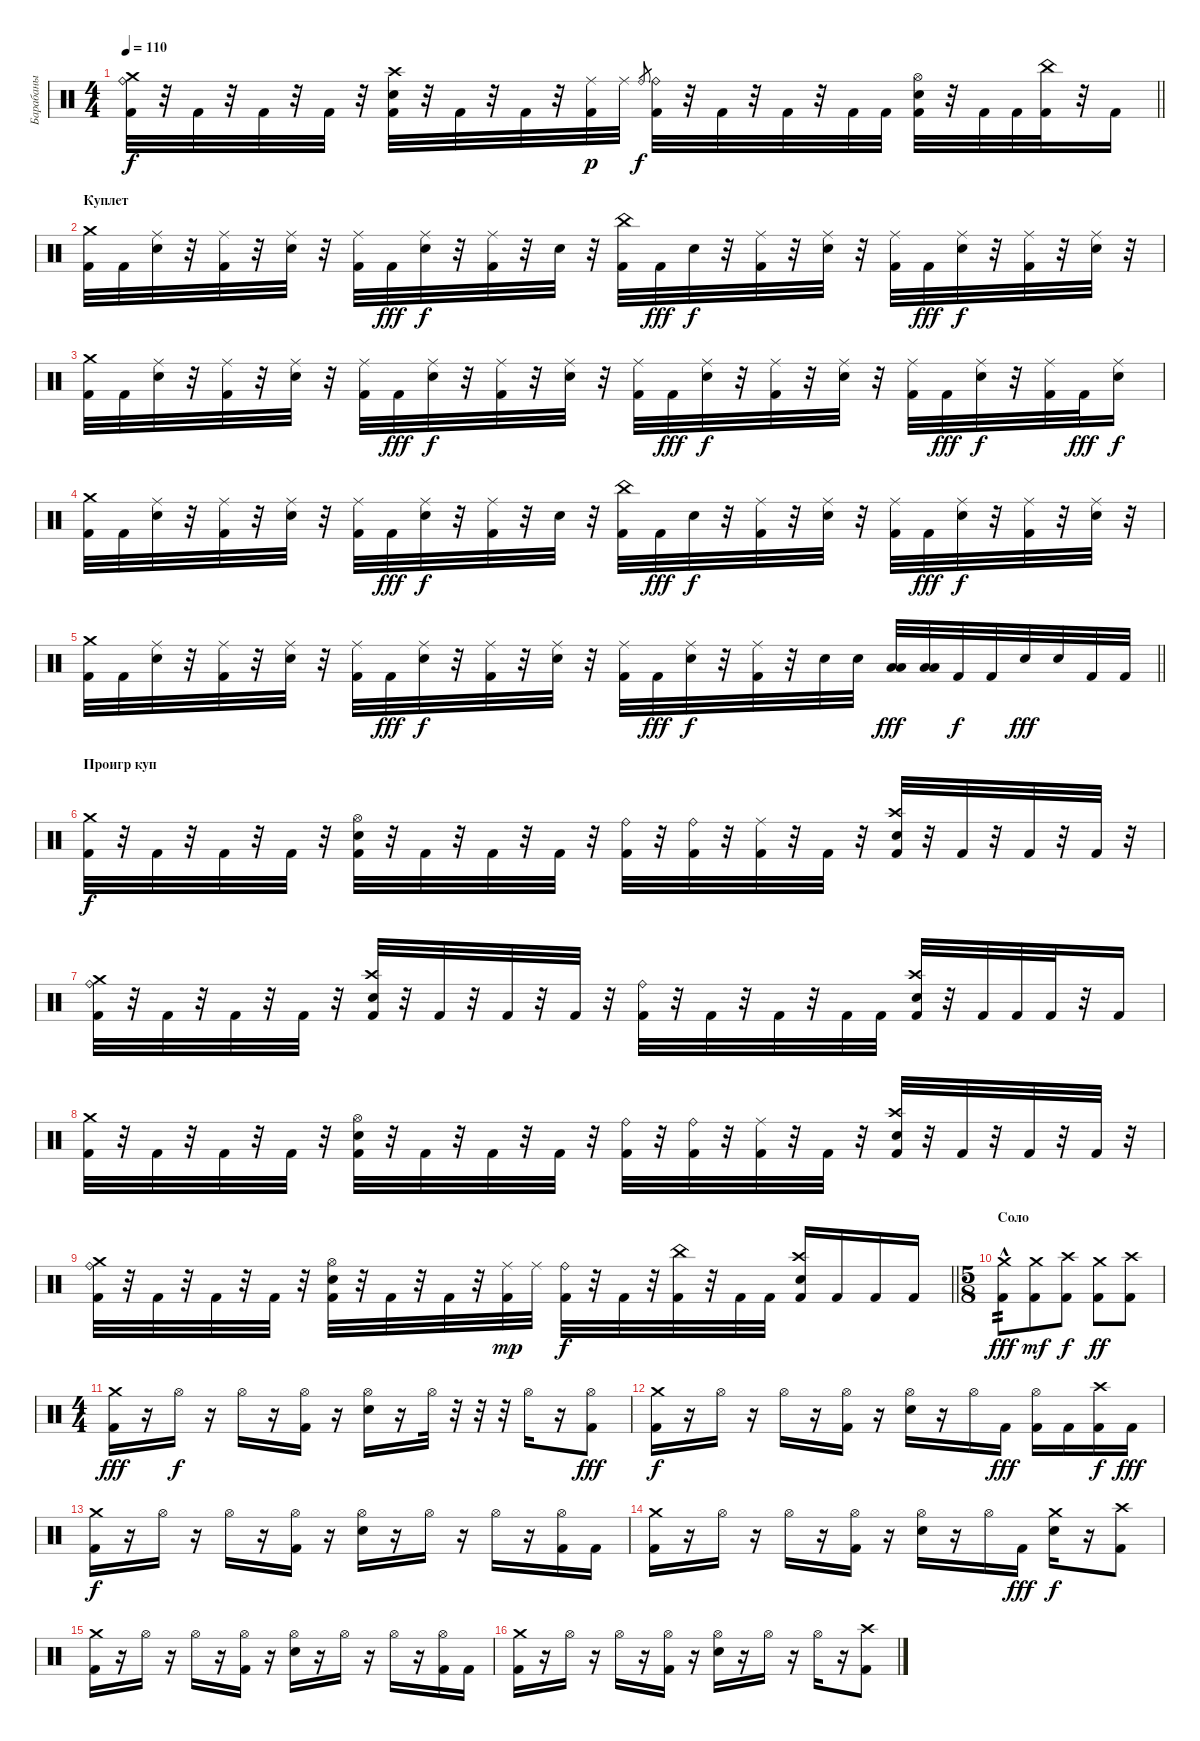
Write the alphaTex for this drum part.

\track ("Барабаны" "Барабаны") {instrument percussion}
\staff {score}
\articulation defaults
\ts (4 4)
\tempo 110
\clef neutral
\barLineRight lightlight
\ks c
("Crash medium (hit)" "Ride (bell)" "Kick (hit) 2").32{dy f} r.32 "Kick (hit) 2".32 r.32 "Kick (hit) 2".32 r.32 "Kick (hit) 2".32 r.32 ("Crash high (hit)" "Snare (hit) 2" "Kick (hit) 2").32 r.32 "Kick (hit) 2".32 r.32 "Kick (hit) 2".32 r.32 ("Ride (middle)" "Kick (hit) 2").32{dy p} "Ride (middle)".32 "Ride (bell)".8{gr dy f} ("Ride (bell)" "Kick (hit) 2").32 r.32 "Kick (hit) 2".32 r.32 "Kick (hit) 2".32 r.32 "Kick (hit) 2".32 "Kick (hit) 2".32 ("Hi-Hat (open)" "Snare (hit) 2" "Kick (hit) 2").32 r.32 "Kick (hit) 2".32 "Kick (hit) 2".32 ("China (hit)" "Kick (hit) 2").32 r.32 "Kick (hit) 2".16 |
\section ("" "Куплет")
("Crash medium (hit)" "Kick (hit) 2").32 "Kick (hit) 2".32 ("Ride (middle)" "Electric Snare (hit)").32 r.32 ("Ride (middle)" "Kick (hit) 2").32 r.32 ("Ride (middle)" "Electric Snare (hit)").32 r.32 ("Ride (middle)" "Kick (hit) 2").32 "Kick (hit) 2".32{dy fff} ("Ride (middle)" "Electric Snare (hit)").32{dy f} r.32 ("Ride (middle)" "Kick (hit) 2").32 r.32 "Electric Snare (hit)".32 r.32 ("China (hit)" "Kick (hit) 2").32 "Kick (hit) 2".32{dy fff} "Electric Snare (hit)".32{dy f} r.32 ("Ride (middle)" "Kick (hit) 2").32 r.32 ("Ride (middle)" "Electric Snare (hit)").32 r.32 ("Ride (middle)" "Kick (hit) 2").32 "Kick (hit) 2".32{dy fff} ("Ride (middle)" "Electric Snare (hit)").32{dy f} r.32 ("Ride (middle)" "Kick (hit) 2").32 r.32 ("Ride (middle)" "Electric Snare (hit)").32 r.32 |
("Crash medium (hit)" "Kick (hit) 2").32 "Kick (hit) 2".32 ("Ride (middle)" "Electric Snare (hit)").32 r.32 ("Ride (middle)" "Kick (hit) 2").32 r.32 ("Ride (middle)" "Electric Snare (hit)").32 r.32 ("Ride (middle)" "Kick (hit) 2").32 "Kick (hit) 2".32{dy fff} ("Ride (middle)" "Electric Snare (hit)").32{dy f} r.32 ("Ride (middle)" "Kick (hit) 2").32 r.32 ("Ride (middle)" "Electric Snare (hit)").32 r.32 ("Ride (middle)" "Kick (hit) 2").32 "Kick (hit) 2".32{dy fff} ("Ride (middle)" "Electric Snare (hit)").32{dy f} r.32 ("Ride (middle)" "Kick (hit) 2").32 r.32 ("Ride (middle)" "Electric Snare (hit)").32 r.32 ("Ride (middle)" "Kick (hit) 2").32 "Kick (hit) 2".32{dy fff} ("Ride (middle)" "Electric Snare (hit)").32{dy f} r.32 ("Ride (middle)" "Kick (hit) 2").32 "Kick (hit) 2".32{dy fff} ("Ride (middle)" "Electric Snare (hit)").16{dy f} |
("Crash medium (hit)" "Kick (hit) 2").32 "Kick (hit) 2".32 ("Ride (middle)" "Electric Snare (hit)").32 r.32 ("Ride (middle)" "Kick (hit) 2").32 r.32 ("Ride (middle)" "Electric Snare (hit)").32 r.32 ("Ride (middle)" "Kick (hit) 2").32 "Kick (hit) 2".32{dy fff} ("Ride (middle)" "Electric Snare (hit)").32{dy f} r.32 ("Ride (middle)" "Kick (hit) 2").32 r.32 "Electric Snare (hit)".32 r.32 ("China (hit)" "Kick (hit) 2").32 "Kick (hit) 2".32{dy fff} "Electric Snare (hit)".32{dy f} r.32 ("Ride (middle)" "Kick (hit) 2").32 r.32 ("Ride (middle)" "Electric Snare (hit)").32 r.32 ("Ride (middle)" "Kick (hit) 2").32 "Kick (hit) 2".32{dy fff} ("Ride (middle)" "Electric Snare (hit)").32{dy f} r.32 ("Ride (middle)" "Kick (hit) 2").32 r.32 ("Ride (middle)" "Electric Snare (hit)").32 r.32 |
\barLineRight lightlight
("Crash medium (hit)" "Kick (hit) 2").32 "Kick (hit) 2".32 ("Ride (middle)" "Electric Snare (hit)").32 r.32 ("Ride (middle)" "Kick (hit) 2").32 r.32 ("Ride (middle)" "Electric Snare (hit)").32 r.32 ("Ride (middle)" "Kick (hit) 2").32 "Kick (hit) 2".32{dy fff} ("Ride (middle)" "Electric Snare (hit)").32{dy f} r.32 ("Ride (middle)" "Kick (hit) 2").32 r.32 ("Ride (middle)" "Electric Snare (hit)").32 r.32 ("Ride (middle)" "Kick (hit) 2").32 "Kick (hit) 2".32{dy fff} ("Ride (middle)" "Electric Snare (hit)").32{dy f} r.32 ("Ride (middle)" "Kick (hit) 2").32 r.32 "Electric Snare (hit)".32 "Electric Snare (hit)".32 ("Low Tom (hit)" "Low Tom (hit)").32{dy fff} ("Low Tom (hit)" "Low Tom (hit)").32 "Kick (hit) 2".32{dy f} "Kick (hit) 2".32 "Electric Snare (hit)".32{dy fff} "Electric Snare (hit)".32 "Kick (hit) 2".32 "Kick (hit) 2".32 |
\section ("" "Проигр куп")
("Crash medium (hit)" "Kick (hit) 2").32{dy f} r.32 "Kick (hit) 2".32 r.32 "Kick (hit) 2".32 r.32 "Kick (hit) 2".32 r.32 ("Hi-Hat (open)" "Snare (hit) 2" "Kick (hit) 2").32 r.32 "Kick (hit) 2".32 r.32 "Kick (hit) 2".32 r.32 "Kick (hit) 2".32 r.32 ("Ride (bell)" "Kick (hit) 2").32 r.32 ("Ride (bell)" "Kick (hit) 2").32 r.32 ("Ride (middle)" "Kick (hit) 2").32 r.32 "Kick (hit) 2".32 r.32 ("Crash high (hit)" "Snare (hit) 2" "Kick (hit) 2").32 r.32 "Kick (hit) 2".32 r.32 "Kick (hit) 2".32 r.32 "Kick (hit) 2".32 r.32 |
("Crash medium (hit)" "Ride (bell)" "Kick (hit) 2").32 r.32 "Kick (hit) 2".32 r.32 "Kick (hit) 2".32 r.32 "Kick (hit) 2".32 r.32 ("Crash high (hit)" "Snare (hit) 2" "Kick (hit) 2").32 r.32 "Kick (hit) 2".32 r.32 "Kick (hit) 2".32 r.32 "Kick (hit) 2".32 r.32 ("Ride (bell)" "Kick (hit) 2").32 r.32 "Kick (hit) 2".32 r.32 "Kick (hit) 2".32 r.32 "Kick (hit) 2".32 "Kick (hit) 2".32 ("Crash high (hit)" "Snare (hit) 2" "Kick (hit) 2").32 r.32 "Kick (hit) 2".32 "Kick (hit) 2".32 "Kick (hit) 2".32 r.32 "Kick (hit) 2".16 |
("Crash medium (hit)" "Kick (hit) 2").32 r.32 "Kick (hit) 2".32 r.32 "Kick (hit) 2".32 r.32 "Kick (hit) 2".32 r.32 ("Hi-Hat (open)" "Snare (hit) 2" "Kick (hit) 2").32 r.32 "Kick (hit) 2".32 r.32 "Kick (hit) 2".32 r.32 "Kick (hit) 2".32 r.32 ("Ride (bell)" "Kick (hit) 2").32 r.32 ("Ride (bell)" "Kick (hit) 2").32 r.32 ("Ride (middle)" "Kick (hit) 2").32 r.32 "Kick (hit) 2".32 r.32 ("Crash high (hit)" "Snare (hit) 2" "Kick (hit) 2").32 r.32 "Kick (hit) 2".32 r.32 "Kick (hit) 2".32 r.32 "Kick (hit) 2".32 r.32 |
\barLineRight lightlight
("Crash medium (hit)" "Ride (bell)" "Kick (hit) 2").32 r.32 "Kick (hit) 2".32 r.32 "Kick (hit) 2".32 r.32 "Kick (hit) 2".32 r.32 ("Hi-Hat (open)" "Snare (hit) 2" "Kick (hit) 2").32 r.32 "Kick (hit) 2".32 r.32 "Kick (hit) 2".32 r.32 ("Ride (middle)" "Kick (hit) 2").32{dy mp} "Ride (middle)".32 ("Ride (bell)" "Kick (hit) 2").32{dy f} r.32 "Kick (hit) 2".32 r.32 ("China (hit)" "Kick (hit) 2").32 r.32 "Kick (hit) 2".32 "Kick (hit) 2".32 ("Crash high (hit)" "Snare (hit) 2" "Kick (hit) 2").16 "Kick (hit) 2".16 "Kick (hit) 2".16 "Kick (hit) 2".16 |
\ts (5 8)
\section ("" "Соло")
("Crash medium (hit)" "Kick (hit) 2"{hac}).8{tp 2 dy fff} ("Crash medium (hit)" "Kick (hit) 2").8{dy mf} ("Crash high (hit)" "Kick (hit) 2").8{dy f} ("Crash medium (hit)" "Kick (hit) 2").8{dy ff} ("Crash high (hit)" "Kick (hit) 2").8 |
\ts (4 4)
("Crash medium (hit)" "Kick (hit) 2").16{dy fff} r.16 "Hi-Hat (open)".16{dy f} r.16 "Hi-Hat (open)".16 r.16 ("Hi-Hat (open)" "Kick (hit) 2").16 r.16 ("Hi-Hat (open)" "Electric Snare (hit)").16 r.16 "Hi-Hat (open)".32 r.32 r.32 r.32 "Hi-Hat (open)".16 r.16 ("Hi-Hat (open)" "Kick (hit) 2").8{dy fff} |
("Crash medium (hit)" "Kick (hit) 2").16{dy f} r.16 "Hi-Hat (open)".16 r.16 "Hi-Hat (open)".16 r.16 ("Hi-Hat (open)" "Kick (hit) 2").16 r.16 ("Hi-Hat (open)" "Electric Snare (hit)").16 r.16 "Hi-Hat (open)".16 "Kick (hit) 2".16{dy fff} ("Hi-Hat (open)" "Kick (hit) 2").16 "Kick (hit) 2".16 ("Crash high (hit)" "Kick (hit) 2").16{dy f} "Kick (hit) 2".16{dy fff} |
("Crash medium (hit)" "Kick (hit) 2").16{dy f} r.16 "Hi-Hat (open)".16 r.16 "Hi-Hat (open)".16 r.16 ("Hi-Hat (open)" "Kick (hit) 2").16 r.16 ("Hi-Hat (open)" "Electric Snare (hit)").16 r.16 "Hi-Hat (open)".16 r.16 "Hi-Hat (open)".16 r.16 ("Hi-Hat (open)" "Kick (hit) 2").16 "Kick (hit) 2".16 |
("Crash medium (hit)" "Kick (hit) 2").16 r.16 "Hi-Hat (open)".16 r.16 "Hi-Hat (open)".16 r.16 ("Hi-Hat (open)" "Kick (hit) 2").16 r.16 ("Hi-Hat (open)" "Electric Snare (hit)").16 r.16 "Hi-Hat (open)".16 "Kick (hit) 2".16{dy fff} ("Crash medium (hit)" "Electric Snare (hit)").16{dy f} r.16 ("Crash high (hit)" "Kick (hit) 2").8 |
("Crash medium (hit)" "Kick (hit) 2").16 r.16 "Hi-Hat (open)".16 r.16 "Hi-Hat (open)".16 r.16 ("Hi-Hat (open)" "Kick (hit) 2").16 r.16 ("Hi-Hat (open)" "Electric Snare (hit)").16 r.16 "Hi-Hat (open)".16 r.16 "Hi-Hat (open)".16 r.16 ("Hi-Hat (open)" "Kick (hit) 2").16 "Kick (hit) 2".16 |
("Crash medium (hit)" "Kick (hit) 2").16 r.16 "Hi-Hat (open)".16 r.16 "Hi-Hat (open)".16 r.16 ("Hi-Hat (open)" "Kick (hit) 2").16 r.16 ("Hi-Hat (open)" "Electric Snare (hit)").16 r.16 "Hi-Hat (open)".16 r.16 "Hi-Hat (open)".16 r.16 ("Crash high (hit)" "Kick (hit) 2").8
